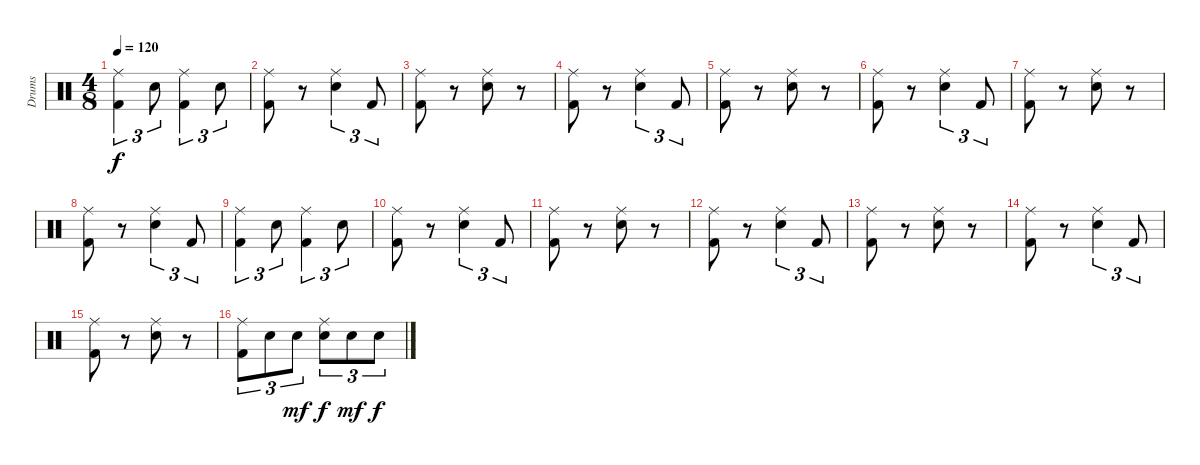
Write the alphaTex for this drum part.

\track ("Drums" "Drums") {instrument percussion}
\staff {score}
\articulation defaults
\ts (4 8)
\tempo 120
\clef neutral
\ks c
("Ride (middle)" "Kick (hit) 2").4{tu (3 2) dy f} "Electric Snare (hit)".8{tu (3 2)} ("Ride (middle)" "Kick (hit) 2").4{tu (3 2)} "Electric Snare (hit)".8{tu (3 2)} |
("Ride (middle)" "Kick (hit) 2").8 r.8 ("Ride (middle)" "Electric Snare (hit)").4{tu (3 2)} "Kick (hit) 2".8{tu (3 2)} |
("Ride (middle)" "Kick (hit) 2").8 r.8 ("Ride (middle)" "Electric Snare (hit)").8 r.8 |
("Ride (middle)" "Kick (hit) 2").8 r.8 ("Ride (middle)" "Electric Snare (hit)").4{tu (3 2)} "Kick (hit) 2".8{tu (3 2)} |
("Ride (middle)" "Kick (hit) 2").8 r.8 ("Ride (middle)" "Electric Snare (hit)").8 r.8 |
("Ride (middle)" "Kick (hit) 2").8 r.8 ("Ride (middle)" "Electric Snare (hit)").4{tu (3 2)} "Kick (hit) 2".8{tu (3 2)} |
("Ride (middle)" "Kick (hit) 2").8 r.8 ("Ride (middle)" "Electric Snare (hit)").8 r.8 |
("Ride (middle)" "Kick (hit) 2").8 r.8 ("Ride (middle)" "Electric Snare (hit)").4{tu (3 2)} "Kick (hit) 2".8{tu (3 2)} |
("Ride (middle)" "Kick (hit) 2").4{tu (3 2)} "Electric Snare (hit)".8{tu (3 2)} ("Ride (middle)" "Kick (hit) 2").4{tu (3 2)} "Electric Snare (hit)".8{tu (3 2)} |
("Ride (middle)" "Kick (hit) 2").8 r.8 ("Ride (middle)" "Electric Snare (hit)").4{tu (3 2)} "Kick (hit) 2".8{tu (3 2)} |
("Ride (middle)" "Kick (hit) 2").8 r.8 ("Ride (middle)" "Electric Snare (hit)").8 r.8 |
("Ride (middle)" "Kick (hit) 2").8 r.8 ("Ride (middle)" "Electric Snare (hit)").4{tu (3 2)} "Kick (hit) 2".8{tu (3 2)} |
("Ride (middle)" "Kick (hit) 2").8 r.8 ("Ride (middle)" "Electric Snare (hit)").8 r.8 |
("Ride (middle)" "Kick (hit) 2").8 r.8 ("Ride (middle)" "Electric Snare (hit)").4{tu (3 2)} "Kick (hit) 2".8{tu (3 2)} |
("Ride (middle)" "Kick (hit) 2").8 r.8 ("Ride (middle)" "Electric Snare (hit)").8 r.8 |
("Ride (middle)" "Kick (hit) 2").8{tu (3 2)} "Electric Snare (hit)".8{tu (3 2)} "Electric Snare (hit)".8{tu (3 2) dy mf} ("Ride (middle)" "Electric Snare (hit)").8{tu (3 2) dy f} "Electric Snare (hit)".8{tu (3 2) dy mf} "Electric Snare (hit)".8{tu (3 2) dy f}
